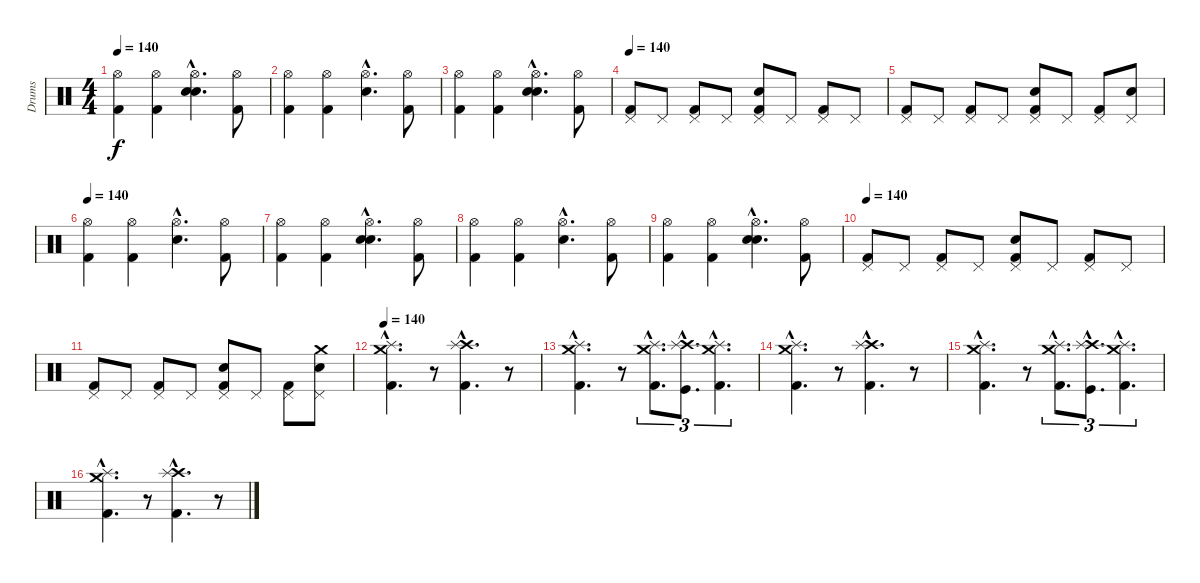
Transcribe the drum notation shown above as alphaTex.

\track ("Drums" "Drums") {instrument percussion}
\staff {score}
\articulation defaults
\ts (4 4)
\tempo 140
\clef neutral
\ks c
("Hi-Hat (open)" "Kick (hit) 2").4{dy f} ("Hi-Hat (open)" "Kick (hit) 2").4 ("Hi-Hat (open)"{hac} "Snare (hit) 2"{hac} "Electric Snare (hit)"{hac}).4{d} ("Hi-Hat (open)" "Kick (hit) 2").8 |
("Hi-Hat (open)" "Kick (hit) 2").4 ("Hi-Hat (open)" "Kick (hit) 2").4 ("Hi-Hat (open)"{hac} "Snare (hit) 2"{hac}).4{d} ("Hi-Hat (open)" "Kick (hit) 2").8 |
("Hi-Hat (open)" "Kick (hit) 2").4 ("Hi-Hat (open)" "Kick (hit) 2").4 ("Hi-Hat (open)"{hac} "Snare (hit) 2"{hac} "Electric Snare (hit)"{hac}).4{d} ("Hi-Hat (open)" "Kick (hit) 2").8 |
\tempo 140
("Pedal Hi-Hat (hit)" "Kick (hit) 2").8 "Pedal Hi-Hat (hit)".8 ("Pedal Hi-Hat (hit)" "Kick (hit) 2").8 "Pedal Hi-Hat (hit)".8 ("Pedal Hi-Hat (hit)" "Snare (hit) 2" "Kick (hit) 2").8 "Pedal Hi-Hat (hit)".8 ("Pedal Hi-Hat (hit)" "Kick (hit) 2").8 "Pedal Hi-Hat (hit)".8 |
("Pedal Hi-Hat (hit)" "Kick (hit) 2").8 "Pedal Hi-Hat (hit)".8 ("Pedal Hi-Hat (hit)" "Kick (hit) 2").8 "Pedal Hi-Hat (hit)".8 ("Pedal Hi-Hat (hit)" "Snare (hit) 2" "Kick (hit) 2").8 "Pedal Hi-Hat (hit)".8 ("Pedal Hi-Hat (hit)" "Kick (hit) 2").8 ("Pedal Hi-Hat (hit)" "Snare (hit) 2").8 |
\tempo 140
("Hi-Hat (open)" "Kick (hit) 2").4 ("Hi-Hat (open)" "Kick (hit) 2").4 ("Hi-Hat (open)"{hac} "Snare (hit) 2"{hac}).4{d} ("Hi-Hat (open)" "Kick (hit) 2").8 |
("Hi-Hat (open)" "Kick (hit) 2").4 ("Hi-Hat (open)" "Kick (hit) 2").4 ("Hi-Hat (open)"{hac} "Snare (hit) 2"{hac} "Electric Snare (hit)"{hac}).4{d} ("Hi-Hat (open)" "Kick (hit) 2").8 |
("Hi-Hat (open)" "Kick (hit) 2").4 ("Hi-Hat (open)" "Kick (hit) 2").4 ("Hi-Hat (open)"{hac} "Snare (hit) 2"{hac}).4{d} ("Hi-Hat (open)" "Kick (hit) 2").8 |
("Hi-Hat (open)" "Kick (hit) 2").4 ("Hi-Hat (open)" "Kick (hit) 2").4 ("Hi-Hat (open)"{hac} "Snare (hit) 2"{hac} "Electric Snare (hit)"{hac}).4{d} ("Hi-Hat (open)" "Kick (hit) 2").8 |
\tempo 140
("Pedal Hi-Hat (hit)" "Kick (hit) 2").8 "Pedal Hi-Hat (hit)".8 ("Pedal Hi-Hat (hit)" "Kick (hit) 2").8 "Pedal Hi-Hat (hit)".8 ("Pedal Hi-Hat (hit)" "Snare (hit) 2" "Kick (hit) 2").8 "Pedal Hi-Hat (hit)".8 ("Pedal Hi-Hat (hit)" "Kick (hit) 2").8 "Pedal Hi-Hat (hit)".8 |
("Pedal Hi-Hat (hit)" "Kick (hit) 2").8 "Pedal Hi-Hat (hit)".8 ("Pedal Hi-Hat (hit)" "Kick (hit) 2").8 "Pedal Hi-Hat (hit)".8 ("Pedal Hi-Hat (hit)" "Snare (hit) 2" "Kick (hit) 2").8 "Pedal Hi-Hat (hit)".8 ("Pedal Hi-Hat (hit)" "Kick (hit) 2").8 ("Crash medium (hit)" "Pedal Hi-Hat (hit)" "Snare (hit) 2").8 |
\tempo 140
("Crash medium (hit)"{hac} "Splash (hit)"{hac} "Kick (hit) 2"{hac}).4{d} r.8 ("Crash high (hit)"{hac} "Splash (hit)"{hac} "Kick (hit) 2"{hac}).4{d} r.8 |
("Crash medium (hit)"{hac} "Splash (hit)"{hac} "Kick (hit) 2"{hac}).4{d} r.8 ("Crash medium (hit)"{hac} "Splash (hit)"{hac} "Kick (hit) 2"{hac}).8{d tu (3 2)} ("Crash high (hit)"{hac} "Splash (hit)"{hac} "Kick (hit)"{hac}).8{d tu (3 2)} ("Crash medium (hit)"{hac} "Splash (hit)"{hac} "Kick (hit) 2"{hac}).4{d tu (3 2)} |
("Crash medium (hit)"{hac} "Splash (hit)"{hac} "Kick (hit) 2"{hac}).4{d} r.8 ("Crash high (hit)"{hac} "Splash (hit)"{hac} "Kick (hit) 2"{hac}).4{d} r.8 |
("Crash medium (hit)"{hac} "Splash (hit)"{hac} "Kick (hit) 2"{hac}).4{d} r.8 ("Crash medium (hit)"{hac} "Splash (hit)"{hac} "Kick (hit) 2"{hac}).8{d tu (3 2)} ("Crash high (hit)"{hac} "Splash (hit)"{hac} "Kick (hit)"{hac}).8{d tu (3 2)} ("Crash medium (hit)"{hac} "Splash (hit)"{hac} "Kick (hit) 2"{hac}).4{d tu (3 2)} |
("Crash medium (hit)"{hac} "Splash (hit)"{hac} "Kick (hit) 2"{hac}).4{d} r.8 ("Crash high (hit)"{hac} "Splash (hit)"{hac} "Kick (hit) 2"{hac}).4{d} r.8
